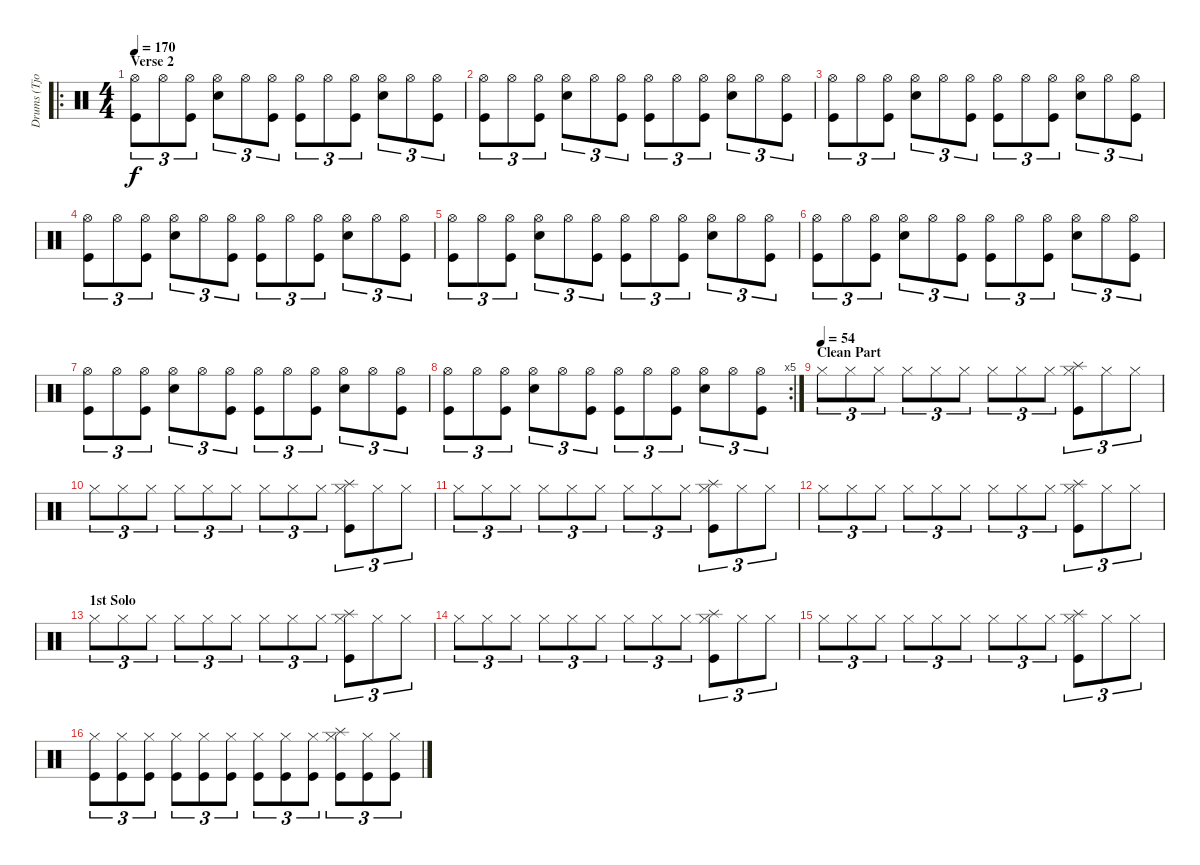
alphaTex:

\track ("Drums (Tjodalv)" "Drums (Tjo") {instrument percussion}
\staff {score}
\articulation defaults
\ro
\ts (4 4)
\section ("" "Verse 2")
\tempo 170
\clef neutral
\ks c
("Hi-Hat (open)" "Kick (hit)").8{tu (3 2) dy f} "Hi-Hat (open)".8{tu (3 2)} ("Hi-Hat (open)" "Kick (hit)").8{tu (3 2)} ("Hi-Hat (open)" "Electric Snare (hit)").8{tu (3 2)} "Hi-Hat (open)".8{tu (3 2)} ("Hi-Hat (open)" "Kick (hit)").8{tu (3 2)} ("Hi-Hat (open)" "Kick (hit)").8{tu (3 2)} "Hi-Hat (open)".8{tu (3 2)} ("Hi-Hat (open)" "Kick (hit)").8{tu (3 2)} ("Hi-Hat (open)" "Electric Snare (hit)").8{tu (3 2)} "Hi-Hat (open)".8{tu (3 2)} ("Hi-Hat (open)" "Kick (hit)").8{tu (3 2)} |
("Hi-Hat (open)" "Kick (hit)").8{tu (3 2)} "Hi-Hat (open)".8{tu (3 2)} ("Hi-Hat (open)" "Kick (hit)").8{tu (3 2)} ("Hi-Hat (open)" "Electric Snare (hit)").8{tu (3 2)} "Hi-Hat (open)".8{tu (3 2)} ("Hi-Hat (open)" "Kick (hit)").8{tu (3 2)} ("Hi-Hat (open)" "Kick (hit)").8{tu (3 2)} "Hi-Hat (open)".8{tu (3 2)} ("Hi-Hat (open)" "Kick (hit)").8{tu (3 2)} ("Hi-Hat (open)" "Electric Snare (hit)").8{tu (3 2)} "Hi-Hat (open)".8{tu (3 2)} ("Hi-Hat (open)" "Kick (hit)").8{tu (3 2)} |
("Hi-Hat (open)" "Kick (hit)").8{tu (3 2)} "Hi-Hat (open)".8{tu (3 2)} ("Hi-Hat (open)" "Kick (hit)").8{tu (3 2)} ("Hi-Hat (open)" "Electric Snare (hit)").8{tu (3 2)} "Hi-Hat (open)".8{tu (3 2)} ("Hi-Hat (open)" "Kick (hit)").8{tu (3 2)} ("Hi-Hat (open)" "Kick (hit)").8{tu (3 2)} "Hi-Hat (open)".8{tu (3 2)} ("Hi-Hat (open)" "Kick (hit)").8{tu (3 2)} ("Hi-Hat (open)" "Electric Snare (hit)").8{tu (3 2)} "Hi-Hat (open)".8{tu (3 2)} ("Hi-Hat (open)" "Kick (hit)").8{tu (3 2)} |
("Hi-Hat (open)" "Kick (hit)").8{tu (3 2)} "Hi-Hat (open)".8{tu (3 2)} ("Hi-Hat (open)" "Kick (hit)").8{tu (3 2)} ("Hi-Hat (open)" "Electric Snare (hit)").8{tu (3 2)} "Hi-Hat (open)".8{tu (3 2)} ("Hi-Hat (open)" "Kick (hit)").8{tu (3 2)} ("Hi-Hat (open)" "Kick (hit)").8{tu (3 2)} "Hi-Hat (open)".8{tu (3 2)} ("Hi-Hat (open)" "Kick (hit)").8{tu (3 2)} ("Hi-Hat (open)" "Electric Snare (hit)").8{tu (3 2)} "Hi-Hat (open)".8{tu (3 2)} ("Hi-Hat (open)" "Kick (hit)").8{tu (3 2)} |
("Hi-Hat (open)" "Kick (hit)").8{tu (3 2)} "Hi-Hat (open)".8{tu (3 2)} ("Hi-Hat (open)" "Kick (hit)").8{tu (3 2)} ("Hi-Hat (open)" "Electric Snare (hit)").8{tu (3 2)} "Hi-Hat (open)".8{tu (3 2)} ("Hi-Hat (open)" "Kick (hit)").8{tu (3 2)} ("Hi-Hat (open)" "Kick (hit)").8{tu (3 2)} "Hi-Hat (open)".8{tu (3 2)} ("Hi-Hat (open)" "Kick (hit)").8{tu (3 2)} ("Hi-Hat (open)" "Electric Snare (hit)").8{tu (3 2)} "Hi-Hat (open)".8{tu (3 2)} ("Hi-Hat (open)" "Kick (hit)").8{tu (3 2)} |
("Hi-Hat (open)" "Kick (hit)").8{tu (3 2)} "Hi-Hat (open)".8{tu (3 2)} ("Hi-Hat (open)" "Kick (hit)").8{tu (3 2)} ("Hi-Hat (open)" "Electric Snare (hit)").8{tu (3 2)} "Hi-Hat (open)".8{tu (3 2)} ("Hi-Hat (open)" "Kick (hit)").8{tu (3 2)} ("Hi-Hat (open)" "Kick (hit)").8{tu (3 2)} "Hi-Hat (open)".8{tu (3 2)} ("Hi-Hat (open)" "Kick (hit)").8{tu (3 2)} ("Hi-Hat (open)" "Electric Snare (hit)").8{tu (3 2)} "Hi-Hat (open)".8{tu (3 2)} ("Hi-Hat (open)" "Kick (hit)").8{tu (3 2)} |
("Hi-Hat (open)" "Kick (hit)").8{tu (3 2)} "Hi-Hat (open)".8{tu (3 2)} ("Hi-Hat (open)" "Kick (hit)").8{tu (3 2)} ("Hi-Hat (open)" "Electric Snare (hit)").8{tu (3 2)} "Hi-Hat (open)".8{tu (3 2)} ("Hi-Hat (open)" "Kick (hit)").8{tu (3 2)} ("Hi-Hat (open)" "Kick (hit)").8{tu (3 2)} "Hi-Hat (open)".8{tu (3 2)} ("Hi-Hat (open)" "Kick (hit)").8{tu (3 2)} ("Hi-Hat (open)" "Electric Snare (hit)").8{tu (3 2)} "Hi-Hat (open)".8{tu (3 2)} ("Hi-Hat (open)" "Kick (hit)").8{tu (3 2)} |
\rc 5
("Hi-Hat (open)" "Kick (hit)").8{tu (3 2)} "Hi-Hat (open)".8{tu (3 2)} ("Hi-Hat (open)" "Kick (hit)").8{tu (3 2)} ("Hi-Hat (open)" "Electric Snare (hit)").8{tu (3 2)} "Hi-Hat (open)".8{tu (3 2)} ("Hi-Hat (open)" "Kick (hit)").8{tu (3 2)} ("Hi-Hat (open)" "Kick (hit)").8{tu (3 2)} "Hi-Hat (open)".8{tu (3 2)} ("Hi-Hat (open)" "Kick (hit)").8{tu (3 2)} ("Hi-Hat (open)" "Electric Snare (hit)").8{tu (3 2)} "Hi-Hat (open)".8{tu (3 2)} ("Hi-Hat (open)" "Kick (hit)").8{tu (3 2)} |
\section ("" "Clean Part")
\tempo (54)
"Hi-Hat (closed)".8{tu (3 2)} "Hi-Hat (closed)".8{tu (3 2)} "Hi-Hat (closed)".8{tu (3 2)} "Hi-Hat (closed)".8{tu (3 2)} "Hi-Hat (closed)".8{tu (3 2)} "Hi-Hat (closed)".8{tu (3 2)} "Hi-Hat (closed)".8{tu (3 2)} "Hi-Hat (closed)".8{tu (3 2)} "Hi-Hat (closed)".8{tu (3 2)} ("Splash (hit)" "Hi-Hat (closed)" "Kick (hit)").8{tu (3 2)} "Hi-Hat (closed)".8{tu (3 2)} "Hi-Hat (closed)".8{tu (3 2)} |
"Hi-Hat (closed)".8{tu (3 2)} "Hi-Hat (closed)".8{tu (3 2)} "Hi-Hat (closed)".8{tu (3 2)} "Hi-Hat (closed)".8{tu (3 2)} "Hi-Hat (closed)".8{tu (3 2)} "Hi-Hat (closed)".8{tu (3 2)} "Hi-Hat (closed)".8{tu (3 2)} "Hi-Hat (closed)".8{tu (3 2)} "Hi-Hat (closed)".8{tu (3 2)} ("Splash (hit)" "Hi-Hat (closed)" "Kick (hit)").8{tu (3 2)} "Hi-Hat (closed)".8{tu (3 2)} "Hi-Hat (closed)".8{tu (3 2)} |
"Hi-Hat (closed)".8{tu (3 2)} "Hi-Hat (closed)".8{tu (3 2)} "Hi-Hat (closed)".8{tu (3 2)} "Hi-Hat (closed)".8{tu (3 2)} "Hi-Hat (closed)".8{tu (3 2)} "Hi-Hat (closed)".8{tu (3 2)} "Hi-Hat (closed)".8{tu (3 2)} "Hi-Hat (closed)".8{tu (3 2)} "Hi-Hat (closed)".8{tu (3 2)} ("Splash (hit)" "Hi-Hat (closed)" "Kick (hit)").8{tu (3 2)} "Hi-Hat (closed)".8{tu (3 2)} "Hi-Hat (closed)".8{tu (3 2)} |
"Hi-Hat (closed)".8{tu (3 2)} "Hi-Hat (closed)".8{tu (3 2)} "Hi-Hat (closed)".8{tu (3 2)} "Hi-Hat (closed)".8{tu (3 2)} "Hi-Hat (closed)".8{tu (3 2)} "Hi-Hat (closed)".8{tu (3 2)} "Hi-Hat (closed)".8{tu (3 2)} "Hi-Hat (closed)".8{tu (3 2)} "Hi-Hat (closed)".8{tu (3 2)} ("Splash (hit)" "Hi-Hat (closed)" "Kick (hit)").8{tu (3 2)} "Hi-Hat (closed)".8{tu (3 2)} "Hi-Hat (closed)".8{tu (3 2)} |
\section ("" "1st Solo")
"Hi-Hat (closed)".8{tu (3 2)} "Hi-Hat (closed)".8{tu (3 2)} "Hi-Hat (closed)".8{tu (3 2)} "Hi-Hat (closed)".8{tu (3 2)} "Hi-Hat (closed)".8{tu (3 2)} "Hi-Hat (closed)".8{tu (3 2)} "Hi-Hat (closed)".8{tu (3 2)} "Hi-Hat (closed)".8{tu (3 2)} "Hi-Hat (closed)".8{tu (3 2)} ("Splash (hit)" "Hi-Hat (closed)" "Kick (hit)").8{tu (3 2)} "Hi-Hat (closed)".8{tu (3 2)} "Hi-Hat (closed)".8{tu (3 2)} |
"Hi-Hat (closed)".8{tu (3 2)} "Hi-Hat (closed)".8{tu (3 2)} "Hi-Hat (closed)".8{tu (3 2)} "Hi-Hat (closed)".8{tu (3 2)} "Hi-Hat (closed)".8{tu (3 2)} "Hi-Hat (closed)".8{tu (3 2)} "Hi-Hat (closed)".8{tu (3 2)} "Hi-Hat (closed)".8{tu (3 2)} "Hi-Hat (closed)".8{tu (3 2)} ("Splash (hit)" "Hi-Hat (closed)" "Kick (hit)").8{tu (3 2)} "Hi-Hat (closed)".8{tu (3 2)} "Hi-Hat (closed)".8{tu (3 2)} |
"Hi-Hat (closed)".8{tu (3 2)} "Hi-Hat (closed)".8{tu (3 2)} "Hi-Hat (closed)".8{tu (3 2)} "Hi-Hat (closed)".8{tu (3 2)} "Hi-Hat (closed)".8{tu (3 2)} "Hi-Hat (closed)".8{tu (3 2)} "Hi-Hat (closed)".8{tu (3 2)} "Hi-Hat (closed)".8{tu (3 2)} "Hi-Hat (closed)".8{tu (3 2)} ("Splash (hit)" "Hi-Hat (closed)" "Kick (hit)").8{tu (3 2)} "Hi-Hat (closed)".8{tu (3 2)} "Hi-Hat (closed)".8{tu (3 2)} |
("Hi-Hat (closed)" "Kick (hit)").8{tu (3 2)} ("Hi-Hat (closed)" "Kick (hit)").8{tu (3 2)} ("Hi-Hat (closed)" "Kick (hit)").8{tu (3 2)} ("Hi-Hat (closed)" "Kick (hit)").8{tu (3 2)} ("Hi-Hat (closed)" "Kick (hit)").8{tu (3 2)} ("Hi-Hat (closed)" "Kick (hit)").8{tu (3 2)} ("Hi-Hat (closed)" "Kick (hit)").8{tu (3 2)} ("Hi-Hat (closed)" "Kick (hit)").8{tu (3 2)} ("Hi-Hat (closed)" "Kick (hit)").8{tu (3 2)} ("Splash (hit)" "Hi-Hat (closed)" "Kick (hit)").8{tu (3 2)} ("Hi-Hat (closed)" "Kick (hit)").8{tu (3 2)} ("Hi-Hat (closed)" "Kick (hit)").8{tu (3 2)}
